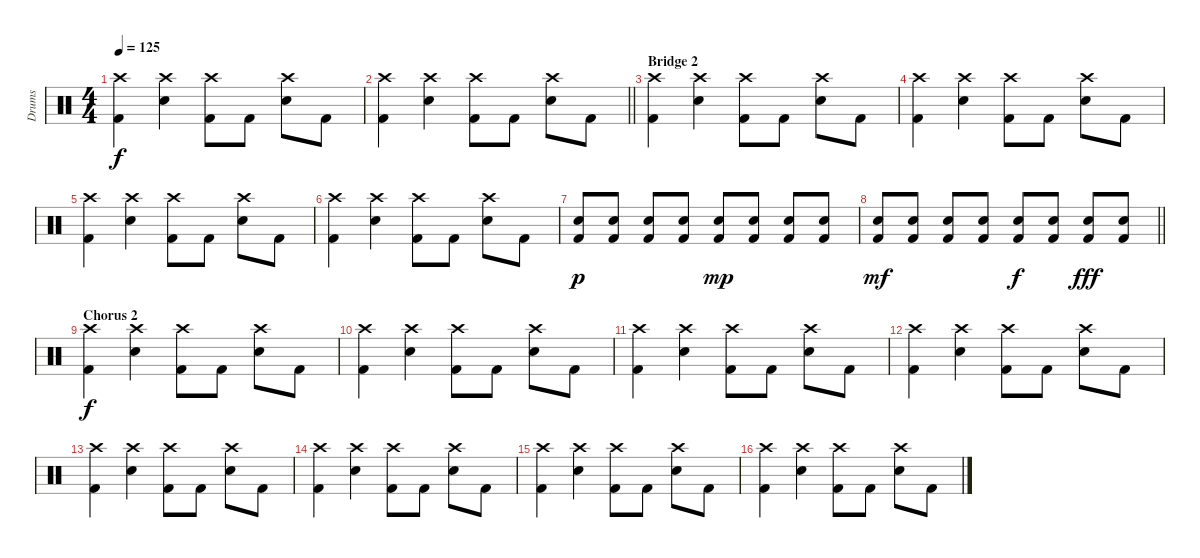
\track ("Drums" "Drums") {instrument percussion}
\staff {score}
\articulation defaults
\ts (4 4)
\tempo 125
\clef neutral
\ks c
("Kick (hit) 2" "Crash high (hit)").4{dy f} ("Snare (hit) 2" "Crash high (hit)").4 ("Kick (hit) 2" "Crash high (hit)").8 "Kick (hit) 2".8 ("Snare (hit) 2" "Crash high (hit)").8 "Kick (hit) 2".8 |
\barLineRight lightlight
("Kick (hit) 2" "Crash high (hit)").4 ("Snare (hit) 2" "Crash high (hit)").4 ("Kick (hit) 2" "Crash high (hit)").8 "Kick (hit) 2".8 ("Snare (hit) 2" "Crash high (hit)").8 "Kick (hit) 2".8 |
\section ("" "Bridge 2")
("Kick (hit) 2" "Crash high (hit)").4 ("Snare (hit) 2" "Crash high (hit)").4 ("Kick (hit) 2" "Crash high (hit)").8 "Kick (hit) 2".8 ("Snare (hit) 2" "Crash high (hit)").8 "Kick (hit) 2".8 |
("Kick (hit) 2" "Crash high (hit)").4 ("Snare (hit) 2" "Crash high (hit)").4 ("Kick (hit) 2" "Crash high (hit)").8 "Kick (hit) 2".8 ("Snare (hit) 2" "Crash high (hit)").8 "Kick (hit) 2".8 |
("Kick (hit) 2" "Crash high (hit)").4 ("Snare (hit) 2" "Crash high (hit)").4 ("Kick (hit) 2" "Crash high (hit)").8 "Kick (hit) 2".8 ("Snare (hit) 2" "Crash high (hit)").8 "Kick (hit) 2".8 |
("Kick (hit) 2" "Crash high (hit)").4 ("Snare (hit) 2" "Crash high (hit)").4 ("Kick (hit) 2" "Crash high (hit)").8 "Kick (hit) 2".8 ("Snare (hit) 2" "Crash high (hit)").8 "Kick (hit) 2".8 |
("Snare (hit) 2" "Kick (hit) 2").8{dy p} ("Snare (hit) 2" "Kick (hit) 2").8 ("Snare (hit) 2" "Kick (hit) 2").8 ("Snare (hit) 2" "Kick (hit) 2").8 ("Snare (hit) 2" "Kick (hit) 2").8{dy mp} ("Snare (hit) 2" "Kick (hit) 2").8 ("Snare (hit) 2" "Kick (hit) 2").8 ("Snare (hit) 2" "Kick (hit) 2").8 |
\barLineRight lightlight
("Snare (hit) 2" "Kick (hit) 2").8{dy mf} ("Snare (hit) 2" "Kick (hit) 2").8 ("Snare (hit) 2" "Kick (hit) 2").8 ("Snare (hit) 2" "Kick (hit) 2").8 ("Snare (hit) 2" "Kick (hit) 2").8{dy f} ("Snare (hit) 2" "Kick (hit) 2").8 ("Snare (hit) 2" "Kick (hit) 2").8{dy fff} ("Snare (hit) 2" "Kick (hit) 2").8 |
\section ("" "Chorus 2")
("Kick (hit) 2" "Crash high (hit)").4{dy f} ("Snare (hit) 2" "Crash high (hit)").4 ("Kick (hit) 2" "Crash high (hit)").8 "Kick (hit) 2".8 ("Snare (hit) 2" "Crash high (hit)").8 "Kick (hit) 2".8 |
("Kick (hit) 2" "Crash high (hit)").4 ("Snare (hit) 2" "Crash high (hit)").4 ("Kick (hit) 2" "Crash high (hit)").8 "Kick (hit) 2".8 ("Snare (hit) 2" "Crash high (hit)").8 "Kick (hit) 2".8 |
("Kick (hit) 2" "Crash high (hit)").4 ("Snare (hit) 2" "Crash high (hit)").4 ("Kick (hit) 2" "Crash high (hit)").8 "Kick (hit) 2".8 ("Snare (hit) 2" "Crash high (hit)").8 "Kick (hit) 2".8 |
("Kick (hit) 2" "Crash high (hit)").4 ("Snare (hit) 2" "Crash high (hit)").4 ("Kick (hit) 2" "Crash high (hit)").8 "Kick (hit) 2".8 ("Snare (hit) 2" "Crash high (hit)").8 "Kick (hit) 2".8 |
("Kick (hit) 2" "Crash high (hit)").4 ("Snare (hit) 2" "Crash high (hit)").4 ("Kick (hit) 2" "Crash high (hit)").8 "Kick (hit) 2".8 ("Snare (hit) 2" "Crash high (hit)").8 "Kick (hit) 2".8 |
("Kick (hit) 2" "Crash high (hit)").4 ("Snare (hit) 2" "Crash high (hit)").4 ("Kick (hit) 2" "Crash high (hit)").8 "Kick (hit) 2".8 ("Snare (hit) 2" "Crash high (hit)").8 "Kick (hit) 2".8 |
("Kick (hit) 2" "Crash high (hit)").4 ("Snare (hit) 2" "Crash high (hit)").4 ("Kick (hit) 2" "Crash high (hit)").8 "Kick (hit) 2".8 ("Snare (hit) 2" "Crash high (hit)").8 "Kick (hit) 2".8 |
("Kick (hit) 2" "Crash high (hit)").4 ("Snare (hit) 2" "Crash high (hit)").4 ("Kick (hit) 2" "Crash high (hit)").8 "Kick (hit) 2".8 ("Snare (hit) 2" "Crash high (hit)").8 "Kick (hit) 2".8
